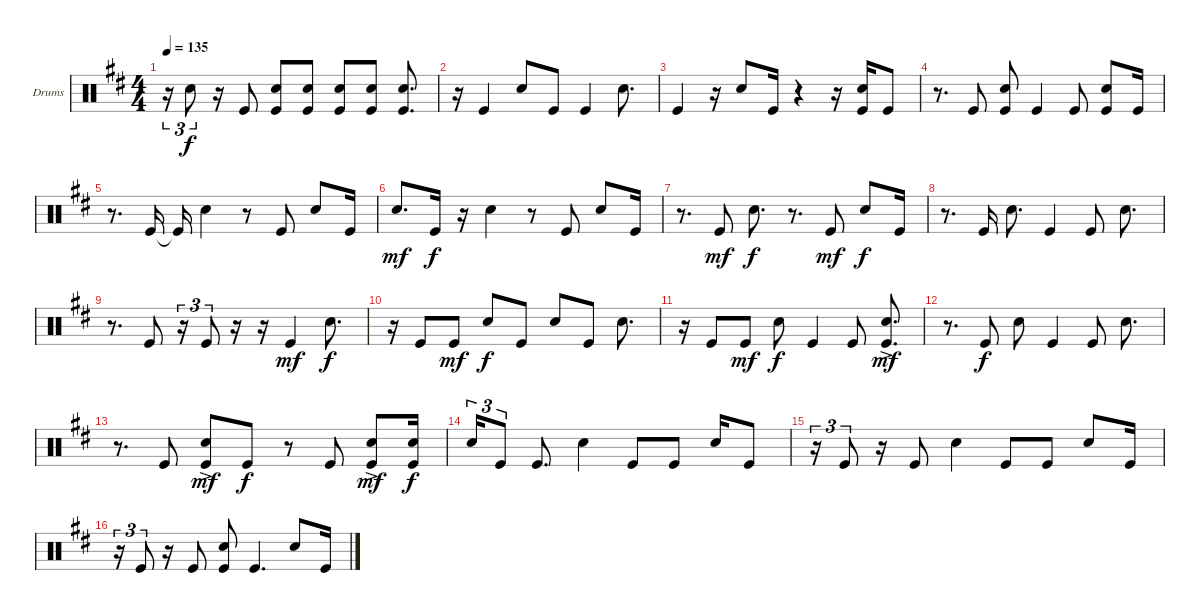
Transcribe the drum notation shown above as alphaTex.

\bracketExtendMode groupsimilarinstruments
\firstSystemTrackNameOrientation horizontal
\otherSystemsTrackNameOrientation horizontal
\track ("Kick" "Drums") {instrument percussion}
\staff {score}
\articulation defaults
\ts (4 4)
\tempo 135
\clef neutral
\ks d
r.16{tu (3 2) dy f} "Snare (hit) 2".8{tu (3 2)} r.16 "Kick (hit)".8 ("Kick (hit)" "Snare (hit) 2").8 ("Snare (hit) 2" "Kick (hit)").8 ("Kick (hit)" "Snare (hit) 2").8 ("Kick (hit)" "Snare (hit) 2").8 ("Kick (hit)" "Snare (hit) 2").8{d} |
r.16 "Kick (hit)".4 "Snare (hit) 2".8 "Kick (hit)".8 "Kick (hit)".4 "Snare (hit) 2".8{d} |
"Kick (hit)".4 r.16 "Snare (hit) 2".8 "Kick (hit)".16 r.4 r.16 ("Kick (hit)" "Snare (hit) 2").16 "Kick (hit)".8 |
r.8{d} "Kick (hit)".8 ("Kick (hit)" "Snare (hit) 2").8 "Kick (hit)".4 "Kick (hit)".8 ("Kick (hit)" "Snare (hit) 2").8 "Kick (hit)".16 |
r.8{d} "Kick (hit)".16 "Kick (hit)"{t}.16 "Snare (hit) 2".4 r.8 "Kick (hit)".8 "Snare (hit) 2".8 "Kick (hit)".16 |
"Snare (hit) 2".8{d dy mf} "Kick (hit)".16{dy f} r.16 "Snare (hit) 2".4 r.8 "Kick (hit)".8 "Snare (hit) 2".8 "Kick (hit)".16 |
r.8{d} "Kick (hit)".8{dy mf} "Snare (hit) 2".8{d dy f} r.8{d} "Kick (hit)".8{dy mf} "Snare (hit) 2".8{dy f} "Kick (hit)".16 |
r.8{d} "Kick (hit)".16 "Snare (hit) 2".8{d} "Kick (hit)".4 "Kick (hit)".8 "Snare (hit) 2".8{d} |
r.8{d} "Kick (hit)".8 r.16{tu (3 2)} "Kick (hit)".8{tu (3 2)} r.16 r.16 "Kick (hit)".4{dy mf} "Snare (hit) 2".8{d dy f} |
r.16 "Kick (hit)".8 "Kick (hit)".8{dy mf} "Snare (hit) 2".8{dy f} "Kick (hit)".8 "Snare (hit) 2".8 "Kick (hit)".8 "Snare (hit) 2".8{d} |
r.16 "Kick (hit)".8 "Kick (hit)".8{dy mf} "Snare (hit) 2".8{dy f} "Kick (hit)".4 "Kick (hit)".8 ("Kick (hit)" "Snare (hit) 2"{ac}).8{d dy mf} |
r.8{d} "Kick (hit)".8{dy f} "Snare (hit) 2".8 "Kick (hit)".4 "Kick (hit)".8 "Snare (hit) 2".8{d} |
r.8{d} "Kick (hit)".8 ("Kick (hit)" "Snare (hit) 2"{ac}).8{dy mf} "Kick (hit)".8{dy f} r.8 "Kick (hit)".8 ("Kick (hit)" "Snare (hit) 2"{ac}).8{dy mf} ("Kick (hit)" "Snare (hit) 2").16{dy f} |
"Snare (hit) 2".16{tu (3 2)} "Kick (hit)".8{tu (3 2)} "Kick (hit)".8{d} "Snare (hit) 2".4 "Kick (hit)".8 "Kick (hit)".8 "Snare (hit) 2".16 "Kick (hit)".8 |
r.16{tu (3 2)} "Kick (hit)".8{tu (3 2)} r.16 "Kick (hit)".8 "Snare (hit) 2".4 "Kick (hit)".8 "Kick (hit)".8 "Snare (hit) 2".8 "Kick (hit)".16 |
r.16{tu (3 2)} "Kick (hit)".8{tu (3 2)} r.16 "Kick (hit)".8 ("Kick (hit)" "Snare (hit) 2").8 "Kick (hit)".4{d} "Snare (hit) 2".8 "Kick (hit)".16
